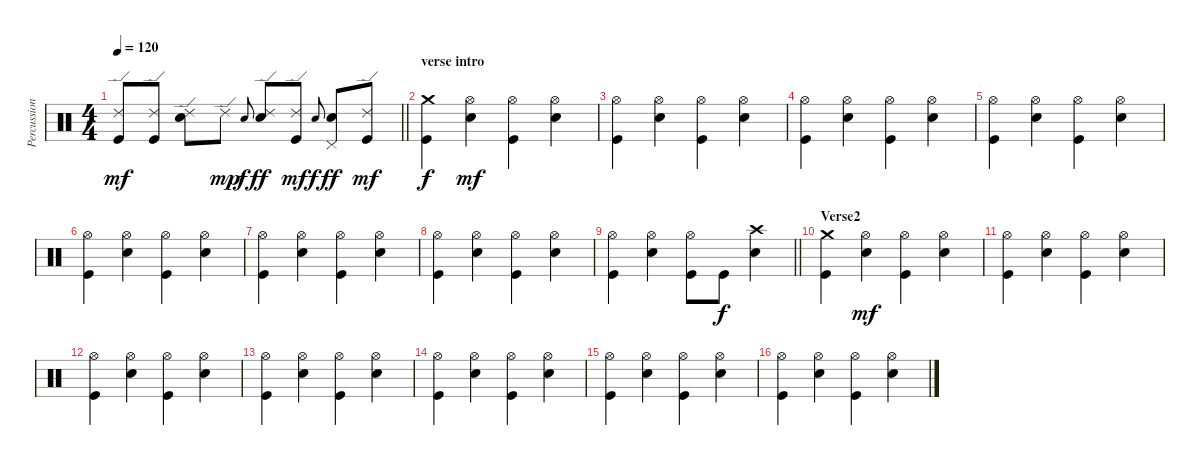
\track ("Percussion" "Percussion") {instrument percussion}
\staff {score}
\articulation defaults
\ts (4 4)
\tempo 120
\clef neutral
\barLineRight lightlight
\ks c
("Ride (edge) 2" "Kick (hit)").8{dy mf} ("Ride (edge) 2" "Kick (hit)").8 ("Ride (edge) 2" "Electric Snare (hit)").8 "Ride (edge) 2".8{dy mp} "Electric Snare (hit)".8{gr onbeat dy f} ("Ride (edge) 2" "Electric Snare (hit)").8{dy ff} ("Ride (edge) 2" "Kick (hit)").8{dy mf} "Electric Snare (hit)".8{gr onbeat dy f} ("Pedal Hi-Hat (hit)" "Electric Snare (hit)").8{dy ff} ("Ride (edge) 2" "Kick (hit)").8{dy mf} |
\section ("" "verse intro")
("Crash medium (hit)" "Kick (hit)").4{dy f} ("Hi-Hat (open)" "Electric Snare (hit)").4{dy mf} ("Hi-Hat (open)" "Kick (hit)").4 ("Hi-Hat (open)" "Electric Snare (hit)").4 |
("Hi-Hat (open)" "Kick (hit)").4 ("Hi-Hat (open)" "Electric Snare (hit)").4 ("Hi-Hat (open)" "Kick (hit)").4 ("Hi-Hat (open)" "Electric Snare (hit)").4 |
("Hi-Hat (open)" "Kick (hit)").4 ("Hi-Hat (open)" "Electric Snare (hit)").4 ("Hi-Hat (open)" "Kick (hit)").4 ("Hi-Hat (open)" "Electric Snare (hit)").4 |
("Hi-Hat (open)" "Kick (hit)").4 ("Hi-Hat (open)" "Electric Snare (hit)").4 ("Hi-Hat (open)" "Kick (hit)").4 ("Hi-Hat (open)" "Electric Snare (hit)").4 |
("Hi-Hat (open)" "Kick (hit)").4 ("Hi-Hat (open)" "Electric Snare (hit)").4 ("Hi-Hat (open)" "Kick (hit)").4 ("Hi-Hat (open)" "Electric Snare (hit)").4 |
("Hi-Hat (open)" "Kick (hit)").4 ("Hi-Hat (open)" "Electric Snare (hit)").4 ("Hi-Hat (open)" "Kick (hit)").4 ("Hi-Hat (open)" "Electric Snare (hit)").4 |
("Hi-Hat (open)" "Kick (hit)").4 ("Hi-Hat (open)" "Electric Snare (hit)").4 ("Hi-Hat (open)" "Kick (hit)").4 ("Hi-Hat (open)" "Electric Snare (hit)").4 |
\barLineRight lightlight
("Hi-Hat (open)" "Kick (hit)").4 ("Hi-Hat (open)" "Electric Snare (hit)").4 ("Hi-Hat (open)" "Kick (hit)").8 "Kick (hit)".8{dy f} ("Crash high (hit)" "Electric Snare (hit)").4 |
\section ("" "Verse2")
("Crash medium (hit)" "Kick (hit)").4 ("Hi-Hat (open)" "Electric Snare (hit)").4{dy mf} ("Hi-Hat (open)" "Kick (hit)").4 ("Hi-Hat (open)" "Electric Snare (hit)").4 |
("Hi-Hat (open)" "Kick (hit)").4 ("Hi-Hat (open)" "Electric Snare (hit)").4 ("Hi-Hat (open)" "Kick (hit)").4 ("Hi-Hat (open)" "Electric Snare (hit)").4 |
("Hi-Hat (open)" "Kick (hit)").4 ("Hi-Hat (open)" "Electric Snare (hit)").4 ("Hi-Hat (open)" "Kick (hit)").4 ("Hi-Hat (open)" "Electric Snare (hit)").4 |
("Hi-Hat (open)" "Kick (hit)").4 ("Hi-Hat (open)" "Electric Snare (hit)").4 ("Hi-Hat (open)" "Kick (hit)").4 ("Hi-Hat (open)" "Electric Snare (hit)").4 |
("Hi-Hat (open)" "Kick (hit)").4 ("Hi-Hat (open)" "Electric Snare (hit)").4 ("Hi-Hat (open)" "Kick (hit)").4 ("Hi-Hat (open)" "Electric Snare (hit)").4 |
("Hi-Hat (open)" "Kick (hit)").4 ("Hi-Hat (open)" "Electric Snare (hit)").4 ("Hi-Hat (open)" "Kick (hit)").4 ("Hi-Hat (open)" "Electric Snare (hit)").4 |
("Hi-Hat (open)" "Kick (hit)").4 ("Hi-Hat (open)" "Electric Snare (hit)").4 ("Hi-Hat (open)" "Kick (hit)").4 ("Hi-Hat (open)" "Electric Snare (hit)").4
